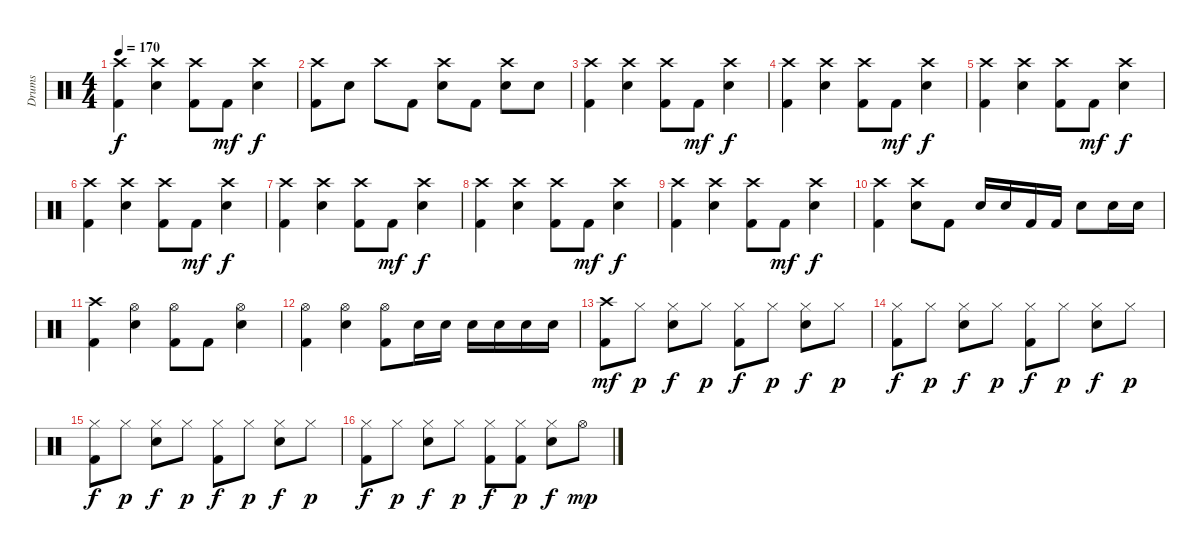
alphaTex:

\track ("Drums" "Drums") {instrument percussion}
\staff {score}
\articulation defaults
\ts (4 4)
\tempo 170
\clef neutral
\ks c
("Crash high (hit)" "Kick (hit) 2").4{dy f} ("Crash high (hit)" "Snare (hit) 2").4 ("Crash high (hit)" "Kick (hit) 2").8 "Kick (hit) 2".8{dy mf} ("Crash high (hit)" "Snare (hit) 2").4{dy f} |
("Crash high (hit)" "Kick (hit) 2").8 "Snare (hit) 2".8 "Crash high (hit)".8 "Kick (hit) 2".8 ("Crash high (hit)" "Snare (hit) 2").8 "Kick (hit) 2".8 ("Crash high (hit)" "Snare (hit) 2").8 "Snare (hit) 2".8 |
("Crash high (hit)" "Kick (hit) 2").4 ("Crash high (hit)" "Snare (hit) 2").4 ("Crash high (hit)" "Kick (hit) 2").8 "Kick (hit) 2".8{dy mf} ("Crash high (hit)" "Snare (hit) 2").4{dy f} |
("Crash high (hit)" "Kick (hit) 2").4 ("Crash high (hit)" "Snare (hit) 2").4 ("Crash high (hit)" "Kick (hit) 2").8 "Kick (hit) 2".8{dy mf} ("Crash high (hit)" "Snare (hit) 2").4{dy f} |
("Crash high (hit)" "Kick (hit) 2").4 ("Crash high (hit)" "Snare (hit) 2").4 ("Crash high (hit)" "Kick (hit) 2").8 "Kick (hit) 2".8{dy mf} ("Crash high (hit)" "Snare (hit) 2").4{dy f} |
("Crash high (hit)" "Kick (hit) 2").4 ("Crash high (hit)" "Snare (hit) 2").4 ("Crash high (hit)" "Kick (hit) 2").8 "Kick (hit) 2".8{dy mf} ("Crash high (hit)" "Snare (hit) 2").4{dy f} |
("Crash high (hit)" "Kick (hit) 2").4 ("Crash high (hit)" "Snare (hit) 2").4 ("Crash high (hit)" "Kick (hit) 2").8 "Kick (hit) 2".8{dy mf} ("Crash high (hit)" "Snare (hit) 2").4{dy f} |
("Crash high (hit)" "Kick (hit) 2").4 ("Crash high (hit)" "Snare (hit) 2").4 ("Crash high (hit)" "Kick (hit) 2").8 "Kick (hit) 2".8{dy mf} ("Crash high (hit)" "Snare (hit) 2").4{dy f} |
("Crash high (hit)" "Kick (hit) 2").4 ("Crash high (hit)" "Snare (hit) 2").4 ("Crash high (hit)" "Kick (hit) 2").8 "Kick (hit) 2".8{dy mf} ("Crash high (hit)" "Snare (hit) 2").4{dy f} |
("Crash high (hit)" "Kick (hit) 2").4 ("Crash high (hit)" "Snare (hit) 2").8 "Kick (hit) 2".8 "Snare (hit) 2".16 "Snare (hit) 2".16 "Kick (hit) 2".16 "Kick (hit) 2".16 "Snare (hit) 2".8 "Snare (hit) 2".16 "Snare (hit) 2".16 |
("Crash high (hit)" "Kick (hit) 2").4 ("Hi-Hat (open)" "Snare (hit) 2").4 ("Hi-Hat (open)" "Kick (hit) 2").8 "Kick (hit) 2".8 ("Hi-Hat (open)" "Snare (hit) 2").4 |
("Hi-Hat (open)" "Kick (hit) 2").4 ("Hi-Hat (open)" "Snare (hit) 2").4 ("Hi-Hat (open)" "Kick (hit) 2").8 "Snare (hit) 2".16 "Snare (hit) 2".16 "Snare (hit) 2".16 "Snare (hit) 2".16 "Snare (hit) 2".16 "Snare (hit) 2".16 |
("Crash high (hit)" "Kick (hit) 2").8{dy mf} "Hi-Hat (closed)".8{dy p} ("Hi-Hat (closed)" "Snare (hit) 2").8{dy f} "Hi-Hat (closed)".8{dy p} ("Hi-Hat (closed)" "Kick (hit) 2").8{dy f} "Hi-Hat (closed)".8{dy p} ("Hi-Hat (closed)" "Snare (hit) 2").8{dy f} "Hi-Hat (closed)".8{dy p} |
("Hi-Hat (closed)" "Kick (hit) 2").8{dy f} "Hi-Hat (closed)".8{dy p} ("Hi-Hat (closed)" "Snare (hit) 2").8{dy f} "Hi-Hat (closed)".8{dy p} ("Hi-Hat (closed)" "Kick (hit) 2").8{dy f} "Hi-Hat (closed)".8{dy p} ("Hi-Hat (closed)" "Snare (hit) 2").8{dy f} "Hi-Hat (closed)".8{dy p} |
("Hi-Hat (closed)" "Kick (hit) 2").8{dy f} "Hi-Hat (closed)".8{dy p} ("Hi-Hat (closed)" "Snare (hit) 2").8{dy f} "Hi-Hat (closed)".8{dy p} ("Hi-Hat (closed)" "Kick (hit) 2").8{dy f} "Hi-Hat (closed)".8{dy p} ("Hi-Hat (closed)" "Snare (hit) 2").8{dy f} "Hi-Hat (closed)".8{dy p} |
("Hi-Hat (closed)" "Kick (hit) 2").8{dy f} "Hi-Hat (closed)".8{dy p} ("Hi-Hat (closed)" "Snare (hit) 2").8{dy f} "Hi-Hat (closed)".8{dy p} ("Hi-Hat (closed)" "Kick (hit) 2").8{dy f} ("Hi-Hat (closed)" "Kick (hit) 2").8{dy p} ("Hi-Hat (closed)" "Snare (hit) 2").8{dy f} "Hi-Hat (open)".8{dy mp}
